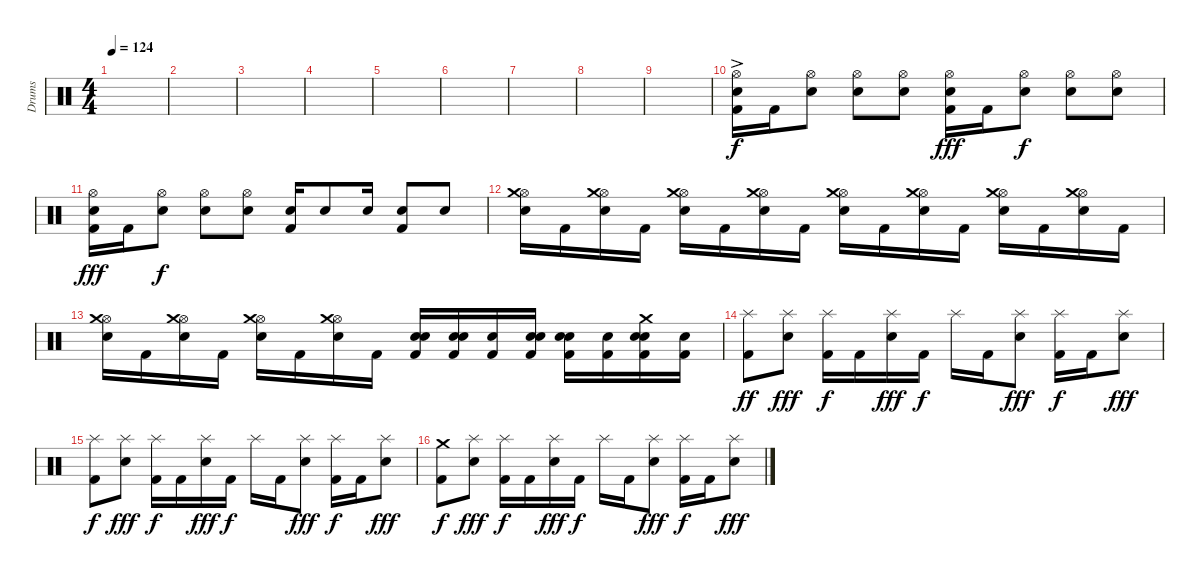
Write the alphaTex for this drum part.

\track ("Drums" "Drums") {instrument percussion}
\staff {score}
\articulation defaults
\ts (4 4)
\tempo 124
\clef neutral
\ks c
|
|
|
|
|
|
|
|
|
("Hi-Hat (open)" "Snare (hit) 2" "Kick (hit) 2"{tr (36 16) ac}).16 "Kick (hit) 2".16 ("Hi-Hat (open)" "Snare (hit) 2").8{dy f} ("Hi-Hat (open)" "Snare (hit) 2").8 ("Hi-Hat (open)" "Snare (hit) 2").8 ("Hi-Hat (open)" "Snare (hit) 2" "Kick (hit) 2"{tr (36 16)}).16{dy fff} "Kick (hit) 2".16 ("Hi-Hat (open)" "Snare (hit) 2").8{dy f} ("Hi-Hat (open)" "Snare (hit) 2").8 ("Hi-Hat (open)" "Snare (hit) 2").8 |
("Hi-Hat (open)" "Snare (hit) 2" "Kick (hit) 2").16{dy fff} "Kick (hit) 2".16 ("Hi-Hat (open)" "Snare (hit) 2").8{dy f} ("Hi-Hat (open)" "Snare (hit) 2").8 ("Hi-Hat (open)" "Snare (hit) 2").8 ("Snare (hit) 2" "Kick (hit) 2").16 "Snare (hit) 2".8 "Snare (hit) 2".16 ("Snare (hit) 2" "Kick (hit) 2").8 "Snare (hit) 2".8 |
("Hi-Hat (open)" "Electric Snare (hit)" "Crash medium (hit)").16 "Kick (hit) 2".16 ("Hi-Hat (open)" "Electric Snare (hit)" "Crash medium (hit)").16 "Kick (hit) 2".16 ("Hi-Hat (open)" "Electric Snare (hit)" "Crash medium (hit)").16 "Kick (hit) 2".16 ("Hi-Hat (open)" "Electric Snare (hit)" "Crash medium (hit)").16 "Kick (hit) 2".16 ("Hi-Hat (open)" "Electric Snare (hit)" "Crash medium (hit)").16 "Kick (hit) 2".16 ("Hi-Hat (open)" "Electric Snare (hit)" "Crash medium (hit)").16 "Kick (hit) 2".16 ("Hi-Hat (open)" "Electric Snare (hit)" "Crash medium (hit)").16 "Kick (hit) 2".16 ("Hi-Hat (open)" "Electric Snare (hit)" "Crash medium (hit)").16 "Kick (hit) 2".16 |
("Hi-Hat (open)" "Electric Snare (hit)" "Crash medium (hit)").16 "Kick (hit) 2".16 ("Hi-Hat (open)" "Electric Snare (hit)" "Crash medium (hit)").16 "Kick (hit) 2".16 ("Hi-Hat (open)" "Electric Snare (hit)" "Crash medium (hit)").16 "Kick (hit) 2".16 ("Hi-Hat (open)" "Electric Snare (hit)" "Crash medium (hit)").16 "Kick (hit) 2".16 ("Snare (hit)"{x} "Electric Snare (hit)" "Kick (hit) 2").16 ("Snare (hit)"{x} "Electric Snare (hit)" "Kick (hit) 2").16 ("Snare (hit)"{x} "Kick (hit) 2").16 ("Snare (hit)"{x} "Electric Snare (hit)" "Kick (hit) 2").16 ("Snare (hit)"{x} "Electric Snare (hit)" "Kick (hit) 2").16 ("Snare (hit)"{x} "Kick (hit) 2").16 ("Snare (hit)"{x} "Crash medium (hit)" "Electric Snare (hit)" "Kick (hit) 2").16 ("Snare (hit)"{x} "Kick (hit) 2").16 |
("Splash (hit)" "Kick (hit) 2").8{dy ff} ("Splash (hit)" "Electric Snare (hit)").8{dy fff} ("Splash (hit)" "Kick (hit) 2").16{dy f} "Kick (hit) 2".16 ("Splash (hit)" "Electric Snare (hit)").16{dy fff} "Kick (hit) 2".16{dy f} "Splash (hit)".16 "Kick (hit) 2".16 ("Splash (hit)" "Electric Snare (hit)").8{dy fff} ("Splash (hit)" "Kick (hit) 2").16{dy f} "Kick (hit) 2".16 ("Splash (hit)" "Electric Snare (hit)").8{dy fff} |
("Splash (hit)" "Kick (hit) 2").8{dy f} ("Splash (hit)" "Electric Snare (hit)").8{dy fff} ("Splash (hit)" "Kick (hit) 2").16{dy f} "Kick (hit) 2".16 ("Splash (hit)" "Electric Snare (hit)").16{dy fff} "Kick (hit) 2".16{dy f} "Splash (hit)".16 "Kick (hit) 2".16 ("Splash (hit)" "Electric Snare (hit)").8{dy fff} ("Splash (hit)" "Kick (hit) 2").16{dy f} "Kick (hit) 2".16 ("Splash (hit)" "Electric Snare (hit)").8{dy fff} |
("Crash medium (hit)" "Kick (hit) 2").8{dy f} ("Splash (hit)" "Electric Snare (hit)").8{dy fff} ("Splash (hit)" "Kick (hit) 2").16{dy f} "Kick (hit) 2".16 ("Splash (hit)" "Electric Snare (hit)").16{dy fff} "Kick (hit) 2".16{dy f} "Splash (hit)".16 "Kick (hit) 2".16 ("Splash (hit)" "Electric Snare (hit)").8{dy fff} ("Splash (hit)" "Kick (hit) 2").16{dy f} "Kick (hit) 2".16 ("Splash (hit)" "Electric Snare (hit)").8{dy fff}
